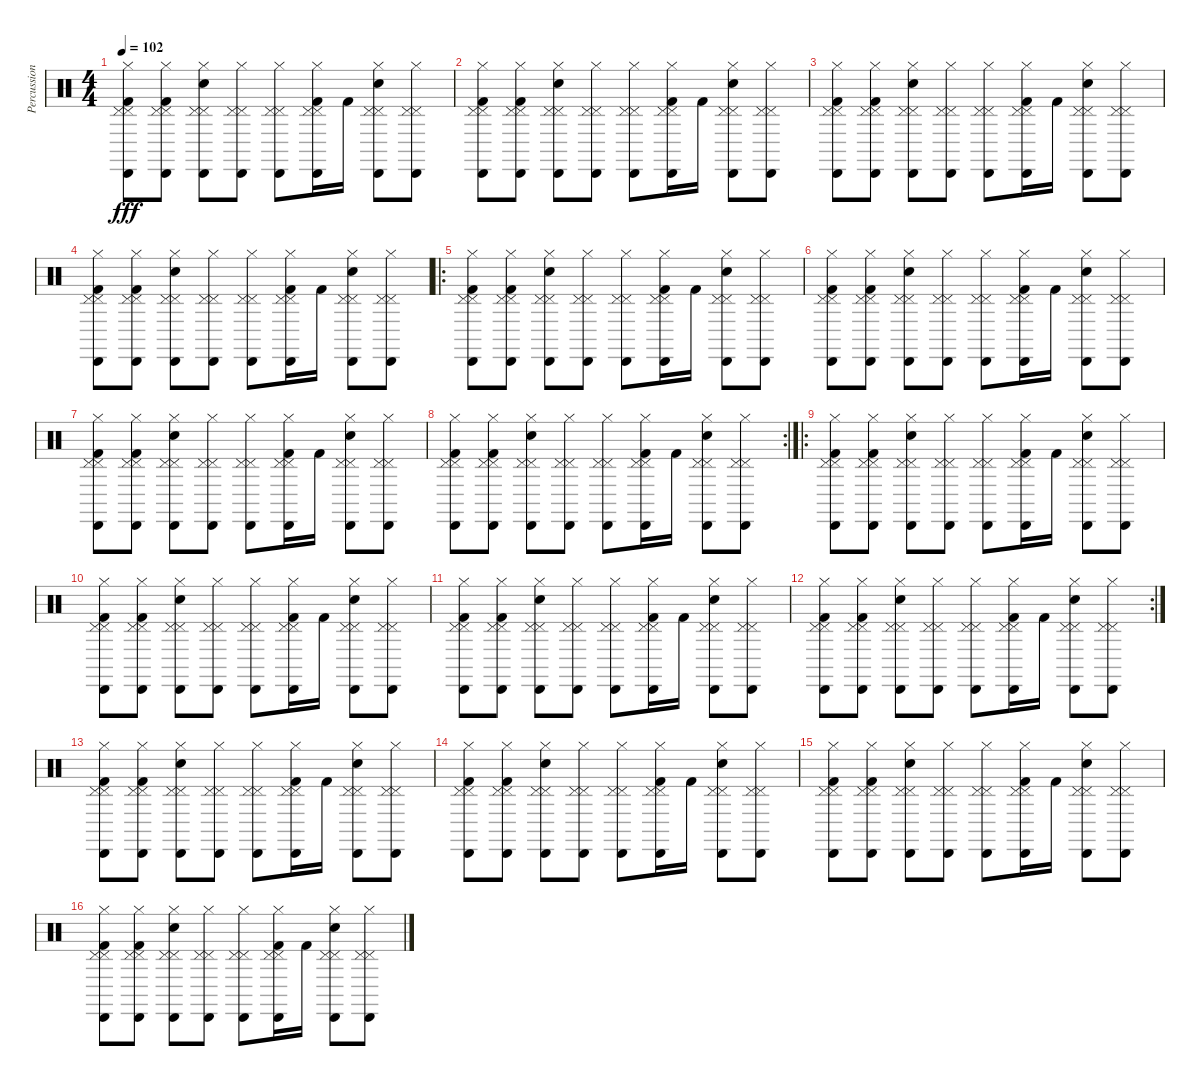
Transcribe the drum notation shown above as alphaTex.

\track ("Percussion" "Percussion") {instrument percussion}
\staff {score}
\articulation defaults
\ts (4 4)
\tempo 102
\clef neutral
\ks c
("Hi-Hat (closed)" "Kick (hit) 2" "Cabasa (hit)" "Pedal Hi-Hat (hit)" "Pedal Hi-Hat (hit)").8{dy fff} ("Hi-Hat (closed)" "Kick (hit) 2" "Cabasa (hit)" "Pedal Hi-Hat (hit)" "Pedal Hi-Hat (hit)").8 ("Hi-Hat (closed)" "Cabasa (hit)" "Electric Snare (hit)" "Pedal Hi-Hat (hit)" "Pedal Hi-Hat (hit)").8 ("Hi-Hat (closed)" "Cabasa (hit)" "Pedal Hi-Hat (hit)" "Pedal Hi-Hat (hit)").8 ("Hi-Hat (closed)" "Cabasa (hit)" "Pedal Hi-Hat (hit)" "Pedal Hi-Hat (hit)").8 ("Hi-Hat (closed)" "Kick (hit) 2" "Cabasa (hit)" "Pedal Hi-Hat (hit)" "Pedal Hi-Hat (hit)").16 "Kick (hit) 2".16 ("Hi-Hat (closed)" "Cabasa (hit)" "Electric Snare (hit)" "Pedal Hi-Hat (hit)" "Pedal Hi-Hat (hit)").8 ("Hi-Hat (closed)" "Cabasa (hit)" "Pedal Hi-Hat (hit)" "Pedal Hi-Hat (hit)").8 |
("Hi-Hat (closed)" "Kick (hit) 2" "Cabasa (hit)" "Pedal Hi-Hat (hit)" "Pedal Hi-Hat (hit)").8 ("Hi-Hat (closed)" "Kick (hit) 2" "Cabasa (hit)" "Pedal Hi-Hat (hit)" "Pedal Hi-Hat (hit)").8 ("Hi-Hat (closed)" "Cabasa (hit)" "Electric Snare (hit)" "Pedal Hi-Hat (hit)" "Pedal Hi-Hat (hit)").8 ("Hi-Hat (closed)" "Cabasa (hit)" "Pedal Hi-Hat (hit)" "Pedal Hi-Hat (hit)").8 ("Hi-Hat (closed)" "Cabasa (hit)" "Pedal Hi-Hat (hit)" "Pedal Hi-Hat (hit)").8 ("Hi-Hat (closed)" "Kick (hit) 2" "Cabasa (hit)" "Pedal Hi-Hat (hit)" "Pedal Hi-Hat (hit)").16 "Kick (hit) 2".16 ("Hi-Hat (closed)" "Cabasa (hit)" "Electric Snare (hit)" "Pedal Hi-Hat (hit)" "Pedal Hi-Hat (hit)").8 ("Hi-Hat (closed)" "Cabasa (hit)" "Pedal Hi-Hat (hit)" "Pedal Hi-Hat (hit)").8 |
("Hi-Hat (closed)" "Kick (hit) 2" "Cabasa (hit)" "Pedal Hi-Hat (hit)" "Pedal Hi-Hat (hit)").8 ("Hi-Hat (closed)" "Kick (hit) 2" "Cabasa (hit)" "Pedal Hi-Hat (hit)" "Pedal Hi-Hat (hit)").8 ("Hi-Hat (closed)" "Cabasa (hit)" "Electric Snare (hit)" "Pedal Hi-Hat (hit)" "Pedal Hi-Hat (hit)").8 ("Hi-Hat (closed)" "Cabasa (hit)" "Pedal Hi-Hat (hit)" "Pedal Hi-Hat (hit)").8 ("Hi-Hat (closed)" "Cabasa (hit)" "Pedal Hi-Hat (hit)" "Pedal Hi-Hat (hit)").8 ("Hi-Hat (closed)" "Kick (hit) 2" "Cabasa (hit)" "Pedal Hi-Hat (hit)" "Pedal Hi-Hat (hit)").16 "Kick (hit) 2".16 ("Hi-Hat (closed)" "Cabasa (hit)" "Electric Snare (hit)" "Pedal Hi-Hat (hit)" "Pedal Hi-Hat (hit)").8 ("Hi-Hat (closed)" "Cabasa (hit)" "Pedal Hi-Hat (hit)" "Pedal Hi-Hat (hit)").8 |
("Hi-Hat (closed)" "Kick (hit) 2" "Cabasa (hit)" "Pedal Hi-Hat (hit)" "Pedal Hi-Hat (hit)").8 ("Hi-Hat (closed)" "Kick (hit) 2" "Cabasa (hit)" "Pedal Hi-Hat (hit)" "Pedal Hi-Hat (hit)").8 ("Hi-Hat (closed)" "Cabasa (hit)" "Electric Snare (hit)" "Pedal Hi-Hat (hit)" "Pedal Hi-Hat (hit)").8 ("Hi-Hat (closed)" "Cabasa (hit)" "Pedal Hi-Hat (hit)" "Pedal Hi-Hat (hit)").8 ("Hi-Hat (closed)" "Cabasa (hit)" "Pedal Hi-Hat (hit)" "Pedal Hi-Hat (hit)").8 ("Hi-Hat (closed)" "Kick (hit) 2" "Cabasa (hit)" "Pedal Hi-Hat (hit)" "Pedal Hi-Hat (hit)").16 "Kick (hit) 2".16 ("Hi-Hat (closed)" "Cabasa (hit)" "Electric Snare (hit)" "Pedal Hi-Hat (hit)" "Pedal Hi-Hat (hit)").8 ("Hi-Hat (closed)" "Cabasa (hit)" "Pedal Hi-Hat (hit)" "Pedal Hi-Hat (hit)").8 |
\ro
("Hi-Hat (closed)" "Kick (hit) 2" "Cabasa (hit)" "Pedal Hi-Hat (hit)" "Pedal Hi-Hat (hit)").8 ("Hi-Hat (closed)" "Kick (hit) 2" "Cabasa (hit)" "Pedal Hi-Hat (hit)" "Pedal Hi-Hat (hit)").8 ("Hi-Hat (closed)" "Cabasa (hit)" "Electric Snare (hit)" "Pedal Hi-Hat (hit)" "Pedal Hi-Hat (hit)").8 ("Hi-Hat (closed)" "Cabasa (hit)" "Pedal Hi-Hat (hit)" "Pedal Hi-Hat (hit)").8 ("Hi-Hat (closed)" "Cabasa (hit)" "Pedal Hi-Hat (hit)" "Pedal Hi-Hat (hit)").8 ("Hi-Hat (closed)" "Kick (hit) 2" "Cabasa (hit)" "Pedal Hi-Hat (hit)" "Pedal Hi-Hat (hit)").16 "Kick (hit) 2".16 ("Hi-Hat (closed)" "Cabasa (hit)" "Electric Snare (hit)" "Pedal Hi-Hat (hit)" "Pedal Hi-Hat (hit)").8 ("Hi-Hat (closed)" "Cabasa (hit)" "Pedal Hi-Hat (hit)" "Pedal Hi-Hat (hit)").8 |
("Hi-Hat (closed)" "Kick (hit) 2" "Cabasa (hit)" "Pedal Hi-Hat (hit)" "Pedal Hi-Hat (hit)").8 ("Hi-Hat (closed)" "Kick (hit) 2" "Cabasa (hit)" "Pedal Hi-Hat (hit)" "Pedal Hi-Hat (hit)").8 ("Hi-Hat (closed)" "Cabasa (hit)" "Electric Snare (hit)" "Pedal Hi-Hat (hit)" "Pedal Hi-Hat (hit)").8 ("Hi-Hat (closed)" "Cabasa (hit)" "Pedal Hi-Hat (hit)" "Pedal Hi-Hat (hit)").8 ("Hi-Hat (closed)" "Cabasa (hit)" "Pedal Hi-Hat (hit)" "Pedal Hi-Hat (hit)").8 ("Hi-Hat (closed)" "Kick (hit) 2" "Cabasa (hit)" "Pedal Hi-Hat (hit)" "Pedal Hi-Hat (hit)").16 "Kick (hit) 2".16 ("Hi-Hat (closed)" "Cabasa (hit)" "Electric Snare (hit)" "Pedal Hi-Hat (hit)" "Pedal Hi-Hat (hit)").8 ("Hi-Hat (closed)" "Cabasa (hit)" "Pedal Hi-Hat (hit)" "Pedal Hi-Hat (hit)").8 |
("Hi-Hat (closed)" "Kick (hit) 2" "Cabasa (hit)" "Pedal Hi-Hat (hit)" "Pedal Hi-Hat (hit)").8 ("Hi-Hat (closed)" "Kick (hit) 2" "Cabasa (hit)" "Pedal Hi-Hat (hit)" "Pedal Hi-Hat (hit)").8 ("Hi-Hat (closed)" "Cabasa (hit)" "Electric Snare (hit)" "Pedal Hi-Hat (hit)" "Pedal Hi-Hat (hit)").8 ("Hi-Hat (closed)" "Cabasa (hit)" "Pedal Hi-Hat (hit)" "Pedal Hi-Hat (hit)").8 ("Hi-Hat (closed)" "Cabasa (hit)" "Pedal Hi-Hat (hit)" "Pedal Hi-Hat (hit)").8 ("Hi-Hat (closed)" "Kick (hit) 2" "Cabasa (hit)" "Pedal Hi-Hat (hit)" "Pedal Hi-Hat (hit)").16 "Kick (hit) 2".16 ("Hi-Hat (closed)" "Cabasa (hit)" "Electric Snare (hit)" "Pedal Hi-Hat (hit)" "Pedal Hi-Hat (hit)").8 ("Hi-Hat (closed)" "Cabasa (hit)" "Pedal Hi-Hat (hit)" "Pedal Hi-Hat (hit)").8 |
\rc 2
("Hi-Hat (closed)" "Kick (hit) 2" "Cabasa (hit)" "Pedal Hi-Hat (hit)" "Pedal Hi-Hat (hit)").8 ("Hi-Hat (closed)" "Kick (hit) 2" "Cabasa (hit)" "Pedal Hi-Hat (hit)" "Pedal Hi-Hat (hit)").8 ("Hi-Hat (closed)" "Cabasa (hit)" "Electric Snare (hit)" "Pedal Hi-Hat (hit)" "Pedal Hi-Hat (hit)").8 ("Hi-Hat (closed)" "Cabasa (hit)" "Pedal Hi-Hat (hit)" "Pedal Hi-Hat (hit)").8 ("Hi-Hat (closed)" "Cabasa (hit)" "Pedal Hi-Hat (hit)" "Pedal Hi-Hat (hit)").8 ("Hi-Hat (closed)" "Kick (hit) 2" "Cabasa (hit)" "Pedal Hi-Hat (hit)" "Pedal Hi-Hat (hit)").16 "Kick (hit) 2".16 ("Hi-Hat (closed)" "Cabasa (hit)" "Electric Snare (hit)" "Pedal Hi-Hat (hit)" "Pedal Hi-Hat (hit)").8 ("Hi-Hat (closed)" "Cabasa (hit)" "Pedal Hi-Hat (hit)" "Pedal Hi-Hat (hit)").8 |
\ro
("Hi-Hat (closed)" "Kick (hit) 2" "Cabasa (hit)" "Pedal Hi-Hat (hit)" "Pedal Hi-Hat (hit)").8 ("Hi-Hat (closed)" "Kick (hit) 2" "Cabasa (hit)" "Pedal Hi-Hat (hit)" "Pedal Hi-Hat (hit)").8 ("Hi-Hat (closed)" "Cabasa (hit)" "Electric Snare (hit)" "Pedal Hi-Hat (hit)" "Pedal Hi-Hat (hit)").8 ("Hi-Hat (closed)" "Cabasa (hit)" "Pedal Hi-Hat (hit)" "Pedal Hi-Hat (hit)").8 ("Hi-Hat (closed)" "Cabasa (hit)" "Pedal Hi-Hat (hit)" "Pedal Hi-Hat (hit)").8 ("Hi-Hat (closed)" "Kick (hit) 2" "Cabasa (hit)" "Pedal Hi-Hat (hit)" "Pedal Hi-Hat (hit)").16 "Kick (hit) 2".16 ("Hi-Hat (closed)" "Cabasa (hit)" "Electric Snare (hit)" "Pedal Hi-Hat (hit)" "Pedal Hi-Hat (hit)").8 ("Hi-Hat (closed)" "Cabasa (hit)" "Pedal Hi-Hat (hit)" "Pedal Hi-Hat (hit)").8 |
("Hi-Hat (closed)" "Kick (hit) 2" "Cabasa (hit)" "Pedal Hi-Hat (hit)" "Pedal Hi-Hat (hit)").8 ("Hi-Hat (closed)" "Kick (hit) 2" "Cabasa (hit)" "Pedal Hi-Hat (hit)" "Pedal Hi-Hat (hit)").8 ("Hi-Hat (closed)" "Cabasa (hit)" "Electric Snare (hit)" "Pedal Hi-Hat (hit)" "Pedal Hi-Hat (hit)").8 ("Hi-Hat (closed)" "Cabasa (hit)" "Pedal Hi-Hat (hit)" "Pedal Hi-Hat (hit)").8 ("Hi-Hat (closed)" "Cabasa (hit)" "Pedal Hi-Hat (hit)" "Pedal Hi-Hat (hit)").8 ("Hi-Hat (closed)" "Kick (hit) 2" "Cabasa (hit)" "Pedal Hi-Hat (hit)" "Pedal Hi-Hat (hit)").16 "Kick (hit) 2".16 ("Hi-Hat (closed)" "Cabasa (hit)" "Electric Snare (hit)" "Pedal Hi-Hat (hit)" "Pedal Hi-Hat (hit)").8 ("Hi-Hat (closed)" "Cabasa (hit)" "Pedal Hi-Hat (hit)" "Pedal Hi-Hat (hit)").8 |
("Hi-Hat (closed)" "Kick (hit) 2" "Cabasa (hit)" "Pedal Hi-Hat (hit)" "Pedal Hi-Hat (hit)").8 ("Hi-Hat (closed)" "Kick (hit) 2" "Cabasa (hit)" "Pedal Hi-Hat (hit)" "Pedal Hi-Hat (hit)").8 ("Hi-Hat (closed)" "Cabasa (hit)" "Electric Snare (hit)" "Pedal Hi-Hat (hit)" "Pedal Hi-Hat (hit)").8 ("Hi-Hat (closed)" "Cabasa (hit)" "Pedal Hi-Hat (hit)" "Pedal Hi-Hat (hit)").8 ("Hi-Hat (closed)" "Cabasa (hit)" "Pedal Hi-Hat (hit)" "Pedal Hi-Hat (hit)").8 ("Hi-Hat (closed)" "Kick (hit) 2" "Cabasa (hit)" "Pedal Hi-Hat (hit)" "Pedal Hi-Hat (hit)").16 "Kick (hit) 2".16 ("Hi-Hat (closed)" "Cabasa (hit)" "Electric Snare (hit)" "Pedal Hi-Hat (hit)" "Pedal Hi-Hat (hit)").8 ("Hi-Hat (closed)" "Cabasa (hit)" "Pedal Hi-Hat (hit)" "Pedal Hi-Hat (hit)").8 |
\rc 2
("Hi-Hat (closed)" "Kick (hit) 2" "Cabasa (hit)" "Pedal Hi-Hat (hit)" "Pedal Hi-Hat (hit)").8 ("Hi-Hat (closed)" "Kick (hit) 2" "Cabasa (hit)" "Pedal Hi-Hat (hit)" "Pedal Hi-Hat (hit)").8 ("Hi-Hat (closed)" "Cabasa (hit)" "Electric Snare (hit)" "Pedal Hi-Hat (hit)" "Pedal Hi-Hat (hit)").8 ("Hi-Hat (closed)" "Cabasa (hit)" "Pedal Hi-Hat (hit)" "Pedal Hi-Hat (hit)").8 ("Hi-Hat (closed)" "Cabasa (hit)" "Pedal Hi-Hat (hit)" "Pedal Hi-Hat (hit)").8 ("Hi-Hat (closed)" "Kick (hit) 2" "Cabasa (hit)" "Pedal Hi-Hat (hit)" "Pedal Hi-Hat (hit)").16 "Kick (hit) 2".16 ("Hi-Hat (closed)" "Cabasa (hit)" "Electric Snare (hit)" "Pedal Hi-Hat (hit)" "Pedal Hi-Hat (hit)").8 ("Hi-Hat (closed)" "Cabasa (hit)" "Pedal Hi-Hat (hit)" "Pedal Hi-Hat (hit)").8 |
("Hi-Hat (closed)" "Kick (hit) 2" "Cabasa (hit)" "Pedal Hi-Hat (hit)" "Pedal Hi-Hat (hit)").8 ("Hi-Hat (closed)" "Kick (hit) 2" "Cabasa (hit)" "Pedal Hi-Hat (hit)" "Pedal Hi-Hat (hit)").8 ("Hi-Hat (closed)" "Cabasa (hit)" "Electric Snare (hit)" "Pedal Hi-Hat (hit)" "Pedal Hi-Hat (hit)").8 ("Hi-Hat (closed)" "Cabasa (hit)" "Pedal Hi-Hat (hit)" "Pedal Hi-Hat (hit)").8 ("Hi-Hat (closed)" "Cabasa (hit)" "Pedal Hi-Hat (hit)" "Pedal Hi-Hat (hit)").8 ("Hi-Hat (closed)" "Kick (hit) 2" "Cabasa (hit)" "Pedal Hi-Hat (hit)" "Pedal Hi-Hat (hit)").16 "Kick (hit) 2".16 ("Hi-Hat (closed)" "Cabasa (hit)" "Electric Snare (hit)" "Pedal Hi-Hat (hit)" "Pedal Hi-Hat (hit)").8 ("Hi-Hat (closed)" "Cabasa (hit)" "Pedal Hi-Hat (hit)" "Pedal Hi-Hat (hit)").8 |
("Hi-Hat (closed)" "Kick (hit) 2" "Cabasa (hit)" "Pedal Hi-Hat (hit)" "Pedal Hi-Hat (hit)").8 ("Hi-Hat (closed)" "Kick (hit) 2" "Cabasa (hit)" "Pedal Hi-Hat (hit)" "Pedal Hi-Hat (hit)").8 ("Hi-Hat (closed)" "Cabasa (hit)" "Electric Snare (hit)" "Pedal Hi-Hat (hit)" "Pedal Hi-Hat (hit)").8 ("Hi-Hat (closed)" "Cabasa (hit)" "Pedal Hi-Hat (hit)" "Pedal Hi-Hat (hit)").8 ("Hi-Hat (closed)" "Cabasa (hit)" "Pedal Hi-Hat (hit)" "Pedal Hi-Hat (hit)").8 ("Hi-Hat (closed)" "Kick (hit) 2" "Cabasa (hit)" "Pedal Hi-Hat (hit)" "Pedal Hi-Hat (hit)").16 "Kick (hit) 2".16 ("Hi-Hat (closed)" "Cabasa (hit)" "Electric Snare (hit)" "Pedal Hi-Hat (hit)" "Pedal Hi-Hat (hit)").8 ("Hi-Hat (closed)" "Cabasa (hit)" "Pedal Hi-Hat (hit)" "Pedal Hi-Hat (hit)").8 |
("Hi-Hat (closed)" "Kick (hit) 2" "Cabasa (hit)" "Pedal Hi-Hat (hit)" "Pedal Hi-Hat (hit)").8 ("Hi-Hat (closed)" "Kick (hit) 2" "Cabasa (hit)" "Pedal Hi-Hat (hit)" "Pedal Hi-Hat (hit)").8 ("Hi-Hat (closed)" "Cabasa (hit)" "Electric Snare (hit)" "Pedal Hi-Hat (hit)" "Pedal Hi-Hat (hit)").8 ("Hi-Hat (closed)" "Cabasa (hit)" "Pedal Hi-Hat (hit)" "Pedal Hi-Hat (hit)").8 ("Hi-Hat (closed)" "Cabasa (hit)" "Pedal Hi-Hat (hit)" "Pedal Hi-Hat (hit)").8 ("Hi-Hat (closed)" "Kick (hit) 2" "Cabasa (hit)" "Pedal Hi-Hat (hit)" "Pedal Hi-Hat (hit)").16 "Kick (hit) 2".16 ("Hi-Hat (closed)" "Cabasa (hit)" "Electric Snare (hit)" "Pedal Hi-Hat (hit)" "Pedal Hi-Hat (hit)").8 ("Hi-Hat (closed)" "Cabasa (hit)" "Pedal Hi-Hat (hit)" "Pedal Hi-Hat (hit)").8 |
("Hi-Hat (closed)" "Kick (hit) 2" "Cabasa (hit)" "Pedal Hi-Hat (hit)" "Pedal Hi-Hat (hit)").8 ("Hi-Hat (closed)" "Kick (hit) 2" "Cabasa (hit)" "Pedal Hi-Hat (hit)" "Pedal Hi-Hat (hit)").8 ("Hi-Hat (closed)" "Cabasa (hit)" "Electric Snare (hit)" "Pedal Hi-Hat (hit)" "Pedal Hi-Hat (hit)").8 ("Hi-Hat (closed)" "Cabasa (hit)" "Pedal Hi-Hat (hit)" "Pedal Hi-Hat (hit)").8 ("Hi-Hat (closed)" "Cabasa (hit)" "Pedal Hi-Hat (hit)" "Pedal Hi-Hat (hit)").8 ("Hi-Hat (closed)" "Kick (hit) 2" "Cabasa (hit)" "Pedal Hi-Hat (hit)" "Pedal Hi-Hat (hit)").16 "Kick (hit) 2".16 ("Hi-Hat (closed)" "Cabasa (hit)" "Electric Snare (hit)" "Pedal Hi-Hat (hit)" "Pedal Hi-Hat (hit)").8 ("Hi-Hat (closed)" "Cabasa (hit)" "Pedal Hi-Hat (hit)" "Pedal Hi-Hat (hit)").8
